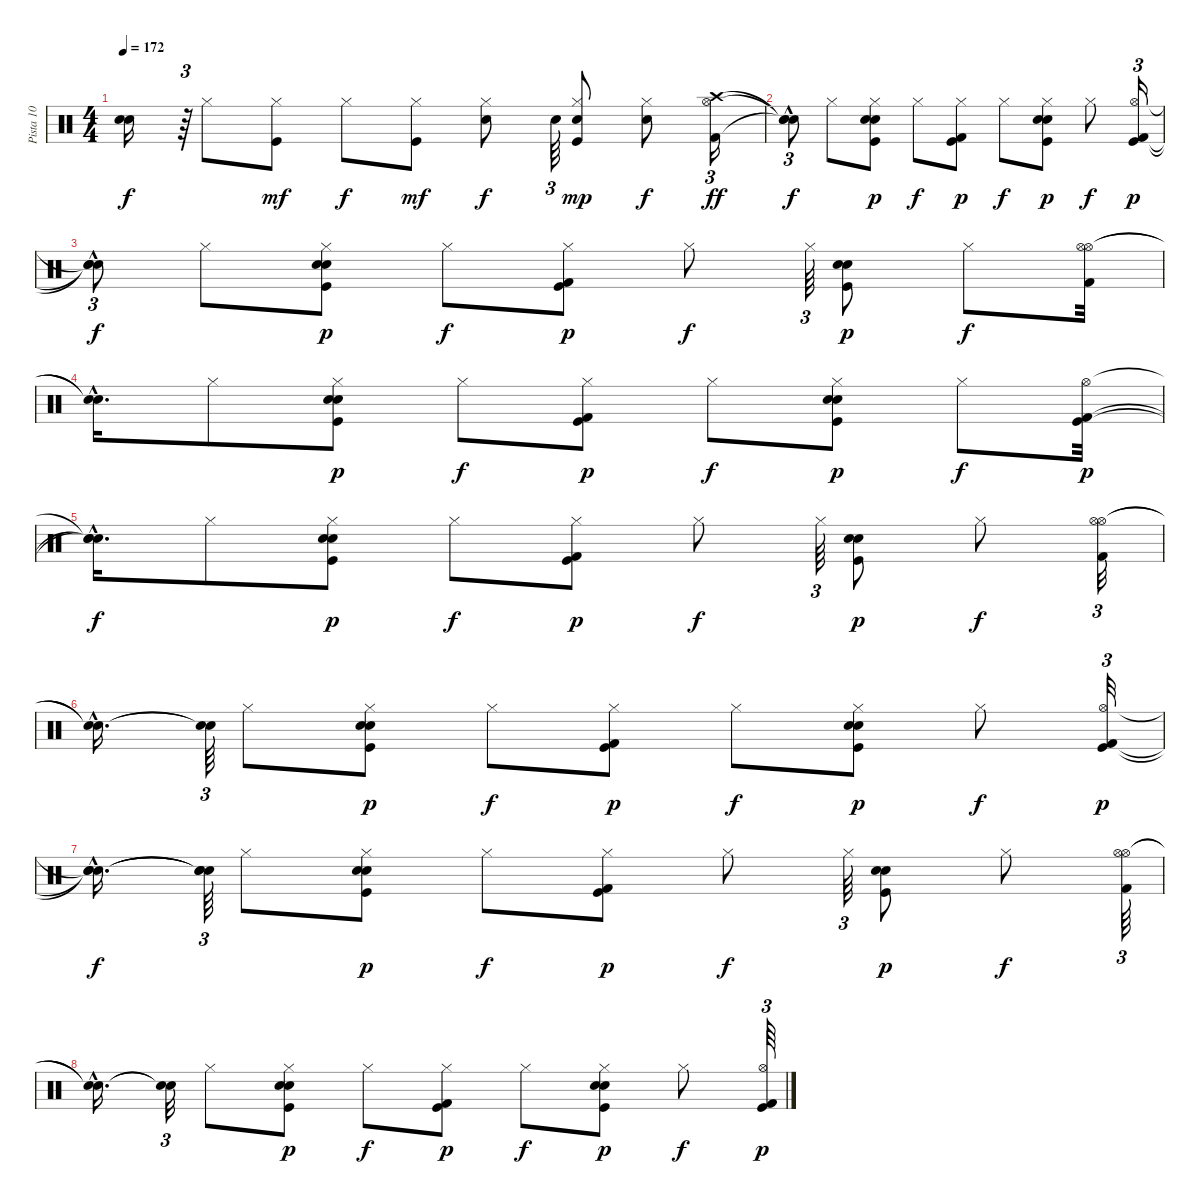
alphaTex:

\track ("Pista 10" "Pista 10") {instrument percussion}
\staff {score}
\articulation defaults
\ts (4 4)
\tempo 172
\clef neutral
\ks c
("Snare (hit)"{t} "Snare (hit)"{t}).16{dy f} r.64{tu (3 2)} "Hi-Hat (closed)".8 ("Kick (hit)" "Hi-Hat (closed)").8{dy mf} "Hi-Hat (closed)".8{dy f} ("Kick (hit)" "Hi-Hat (closed)").8{dy mf} ("Hi-Hat (closed)" "Snare (hit) 2").8{dy f} "Snare (hit) 2".64{tu (3 2)} ("Snare (hit) 2" "Hi-Hat (closed)" "Kick (hit)").8{dy mp} ("Snare (hit) 2" "Hi-Hat (closed)").8{dy f} ("Hi-Hat (open)" "Kick (hit) 2" "Crash high (hit)").16{tu (3 2) dy ff} |
("Snare (hit)"{t} "Snare (hit)"{t} "Snare (hit)"{hac t}).8{tu (3 2) dy f} "Hi-Hat (closed)".8 ("Hi-Hat (closed)" "Electric Snare (hit)" "Snare (hit) 2" "Kick (hit)").8{dy p} "Hi-Hat (closed)".8{dy f} ("Kick (hit) 2" "Kick (hit)" "Hi-Hat (closed)").8{dy p} "Hi-Hat (closed)".8{dy f} ("Snare (hit) 2" "Electric Snare (hit)" "Kick (hit)" "Hi-Hat (closed)").8{dy p} "Hi-Hat (closed)".8{dy f} ("Hi-Hat (open)" "Kick (hit) 2" "Kick (hit)").16{tu (3 2) dy p} |
("Snare (hit)"{t} "Snare (hit)"{t} "Snare (hit)"{hac t}).8{tu (3 2) dy f} "Hi-Hat (closed)".8 ("Hi-Hat (closed)" "Snare (hit) 2" "Electric Snare (hit)" "Kick (hit)").8{dy p} "Hi-Hat (closed)".8{dy f} ("Hi-Hat (closed)" "Kick (hit) 2" "Kick (hit)").8{dy p} "Hi-Hat (closed)".8{dy f} "Hi-Hat (closed)".64{tu (3 2)} ("Snare (hit) 2" "Electric Snare (hit)" "Kick (hit)").8{dy p} "Hi-Hat (closed)".8{dy f} ("Hi-Hat (open)" "Hi-Hat (open)" "Kick (hit) 2").32 |
("Snare (hit)"{hac t} "Snare (hit)"{hac t}).16{d} "Hi-Hat (closed)".8 ("Hi-Hat (closed)" "Electric Snare (hit)" "Snare (hit) 2" "Kick (hit)").8{dy p} "Hi-Hat (closed)".8{dy f} ("Kick (hit) 2" "Kick (hit)" "Hi-Hat (closed)").8{dy p} "Hi-Hat (closed)".8{dy f} ("Snare (hit) 2" "Electric Snare (hit)" "Kick (hit)" "Hi-Hat (closed)").8{dy p} "Hi-Hat (closed)".8{dy f} ("Hi-Hat (open)" "Kick (hit) 2" "Kick (hit)").32{dy p} |
("Snare (hit)"{hac t} "Snare (hit)"{hac t} "Snare (hit)"{hac t}).16{d dy f} "Hi-Hat (closed)".8 ("Hi-Hat (closed)" "Snare (hit) 2" "Electric Snare (hit)" "Kick (hit)").8{dy p} "Hi-Hat (closed)".8{dy f} ("Hi-Hat (closed)" "Kick (hit) 2" "Kick (hit)").8{dy p} "Hi-Hat (closed)".8{dy f} "Hi-Hat (closed)".64{tu (3 2)} ("Snare (hit) 2" "Electric Snare (hit)" "Kick (hit)").8{dy p} "Hi-Hat (closed)".8{dy f} ("Hi-Hat (open)" "Hi-Hat (open)" "Kick (hit) 2").32{tu (3 2)} |
("Snare (hit)"{hac t} "Snare (hit)"{hac t}).16{d} ("Snare (hit)"{t} "Snare (hit)"{t}).64{tu (3 2)} "Hi-Hat (closed)".8 ("Hi-Hat (closed)" "Electric Snare (hit)" "Snare (hit) 2" "Kick (hit)").8{dy p} "Hi-Hat (closed)".8{dy f} ("Kick (hit) 2" "Kick (hit)" "Hi-Hat (closed)").8{dy p} "Hi-Hat (closed)".8{dy f} ("Snare (hit) 2" "Electric Snare (hit)" "Kick (hit)" "Hi-Hat (closed)").8{dy p} "Hi-Hat (closed)".8{dy f} ("Hi-Hat (open)" "Kick (hit) 2" "Kick (hit)").32{tu (3 2) dy p} |
("Snare (hit)"{hac t} "Snare (hit)"{hac t} "Snare (hit)"{hac t}).16{d dy f} ("Snare (hit)"{t} "Snare (hit)"{t} "Snare (hit)"{t}).64{tu (3 2)} "Hi-Hat (closed)".8 ("Hi-Hat (closed)" "Snare (hit) 2" "Electric Snare (hit)" "Kick (hit)").8{dy p} "Hi-Hat (closed)".8{dy f} ("Hi-Hat (closed)" "Kick (hit) 2" "Kick (hit)").8{dy p} "Hi-Hat (closed)".8{dy f} "Hi-Hat (closed)".64{tu (3 2)} ("Snare (hit) 2" "Electric Snare (hit)" "Kick (hit)").8{dy p} "Hi-Hat (closed)".8{dy f} ("Hi-Hat (open)" "Hi-Hat (open)" "Kick (hit) 2").64{tu (3 2)} |
("Snare (hit)"{hac t} "Snare (hit)"{hac t}).16{d} ("Snare (hit)"{t} "Snare (hit)"{t}).32{tu (3 2)} "Hi-Hat (closed)".8 ("Hi-Hat (closed)" "Electric Snare (hit)" "Snare (hit) 2" "Kick (hit)").8{dy p} "Hi-Hat (closed)".8{dy f} ("Kick (hit) 2" "Kick (hit)" "Hi-Hat (closed)").8{dy p} "Hi-Hat (closed)".8{dy f} ("Snare (hit) 2" "Electric Snare (hit)" "Kick (hit)" "Hi-Hat (closed)").8{dy p} "Hi-Hat (closed)".8{dy f} ("Hi-Hat (open)" "Kick (hit) 2" "Kick (hit)").64{tu (3 2) dy p}
